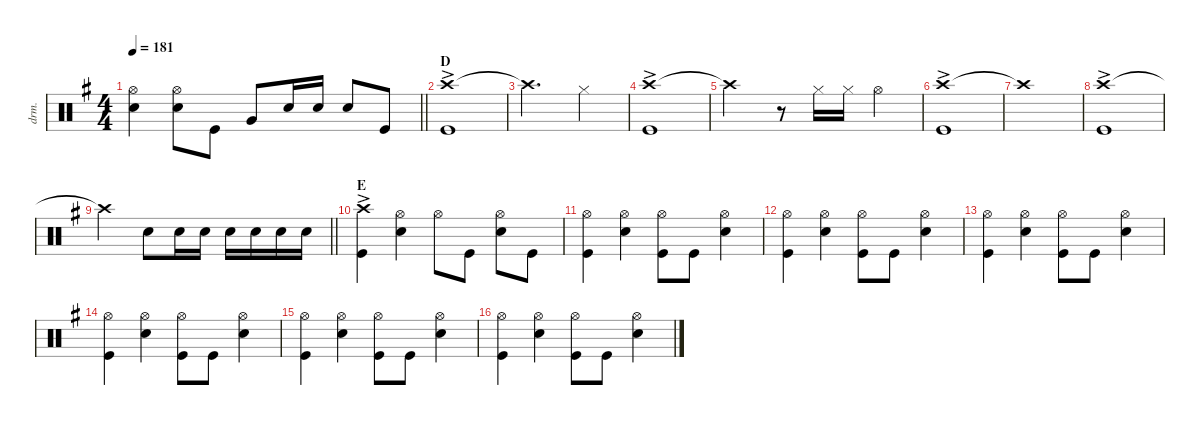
\defaultSystemsLayout 4
\hideDynamics
\bracketExtendMode nobrackets
\track ("Drums" "drm.") {instrument percussion}
\staff {score}
\articulation defaults
\ts (4 4)
\tempo 181
\clef neutral
\barLineRight lightlight
\ks g
("Hi-Hat (open)"{acc forcenatural} "Snare (hit) 2"{acc forcenatural}).4{dy f} ("Hi-Hat (open)"{acc forcenatural} "Snare (hit) 2"{acc forcenatural}).8 "Kick (hit)"{acc forcenatural}.8 "Very Low Tom (hit)"{acc forcenatural}.8 "Snare (hit) 2"{acc forcenatural}.16 "Snare (hit) 2"{acc forcenatural}.16 "Snare (hit) 2"{acc forcenatural}.8 "Kick (hit)"{acc forcenatural}.8 |
\section ("" "D")
("Crash high (hit)"{ac acc forcenatural} "Kick (hit)"{acc forcenatural}).1 |
"Crash high (hit)"{t acc forcenatural}.2{d} "Hi-Hat (closed)"{acc forcenatural}.4 |
("Crash high (hit)"{ac acc forcenatural} "Kick (hit)"{acc forcenatural}).1 |
"Crash high (hit)"{t acc forcenatural}.2 r.8 "Hi-Hat (closed)"{acc forcenatural}.16 "Hi-Hat (closed)"{acc forcenatural}.16 "Hi-Hat (open)"{acc forcenatural}.4 |
("Crash high (hit)"{ac acc forcenatural} "Kick (hit)"{acc forcenatural}).1 |
"Crash high (hit)"{t acc forcenatural}.1 |
("Crash high (hit)"{ac acc forcenatural} "Kick (hit)"{acc forcenatural}).1 |
\barLineRight lightlight "Crash high (hit)"{t acc forcenatural}.2 "Snare (hit) 2"{acc forcenatural}.8 "Snare (hit) 2"{acc forcenatural}.16 "Snare (hit) 2"{acc forcenatural}.16 "Snare (hit) 2"{acc forcenatural}.16 "Snare (hit) 2"{acc forcenatural}.16 "Snare (hit) 2"{acc forcenatural}.16 "Snare (hit) 2"{acc forcenatural}.16
|
\section ("" "E")
("Crash high (hit)"{ac acc forcenatural} "Kick (hit)"{acc forcenatural}).4 ("Hi-Hat (open)"{acc forcenatural} "Snare (hit) 2"{acc forcenatural}).4 "Hi-Hat (open)"{acc forcenatural}.8 "Kick (hit)"{acc forcenatural}.8 ("Hi-Hat (open)"{acc forcenatural} "Snare (hit) 2"{acc forcenatural}).8 "Kick (hit)"{acc forcenatural}.8 |
("Hi-Hat (open)"{acc forcenatural} "Kick (hit)"{acc forcenatural}).4 ("Hi-Hat (open)"{acc forcenatural} "Snare (hit) 2"{acc forcenatural}).4 ("Hi-Hat (open)"{acc forcenatural} "Kick (hit)"{acc forcenatural}).8 "Kick (hit)"{acc forcenatural}.8 ("Hi-Hat (open)"{acc forcenatural} "Snare (hit) 2"{acc forcenatural}).4 |
("Hi-Hat (open)"{acc forcenatural} "Kick (hit)"{acc forcenatural}).4 ("Hi-Hat (open)"{acc forcenatural} "Snare (hit) 2"{acc forcenatural}).4 ("Hi-Hat (open)"{acc forcenatural} "Kick (hit)"{acc forcenatural}).8 "Kick (hit)"{acc forcenatural}.8 ("Hi-Hat (open)"{acc forcenatural} "Snare (hit) 2"{acc forcenatural}).4 |
("Hi-Hat (open)"{acc forcenatural} "Kick (hit)"{acc forcenatural}).4 ("Hi-Hat (open)"{acc forcenatural} "Snare (hit) 2"{acc forcenatural}).4 ("Hi-Hat (open)"{acc forcenatural} "Kick (hit)"{acc forcenatural}).8 "Kick (hit)"{acc forcenatural}.8 ("Hi-Hat (open)"{acc forcenatural} "Snare (hit) 2"{acc forcenatural}).4 |
("Hi-Hat (open)"{acc forcenatural} "Kick (hit)"{acc forcenatural}).4 ("Hi-Hat (open)"{acc forcenatural} "Snare (hit) 2"{acc forcenatural}).4 ("Hi-Hat (open)"{acc forcenatural} "Kick (hit)"{acc forcenatural}).8 "Kick (hit)"{acc forcenatural}.8 ("Hi-Hat (open)"{acc forcenatural} "Snare (hit) 2"{acc forcenatural}).4 |
("Hi-Hat (open)"{acc forcenatural} "Kick (hit)"{acc forcenatural}).4 ("Hi-Hat (open)"{acc forcenatural} "Snare (hit) 2"{acc forcenatural}).4 ("Hi-Hat (open)"{acc forcenatural} "Kick (hit)"{acc forcenatural}).8 "Kick (hit)"{acc forcenatural}.8 ("Hi-Hat (open)"{acc forcenatural} "Snare (hit) 2"{acc forcenatural}).4 |
("Hi-Hat (open)"{acc forcenatural} "Kick (hit)"{acc forcenatural}).4 ("Hi-Hat (open)"{acc forcenatural} "Snare (hit) 2"{acc forcenatural}).4 ("Hi-Hat (open)"{acc forcenatural} "Kick (hit)"{acc forcenatural}).8 "Kick (hit)"{acc forcenatural}.8 ("Hi-Hat (open)"{acc forcenatural} "Snare (hit) 2"{acc forcenatural}).4
